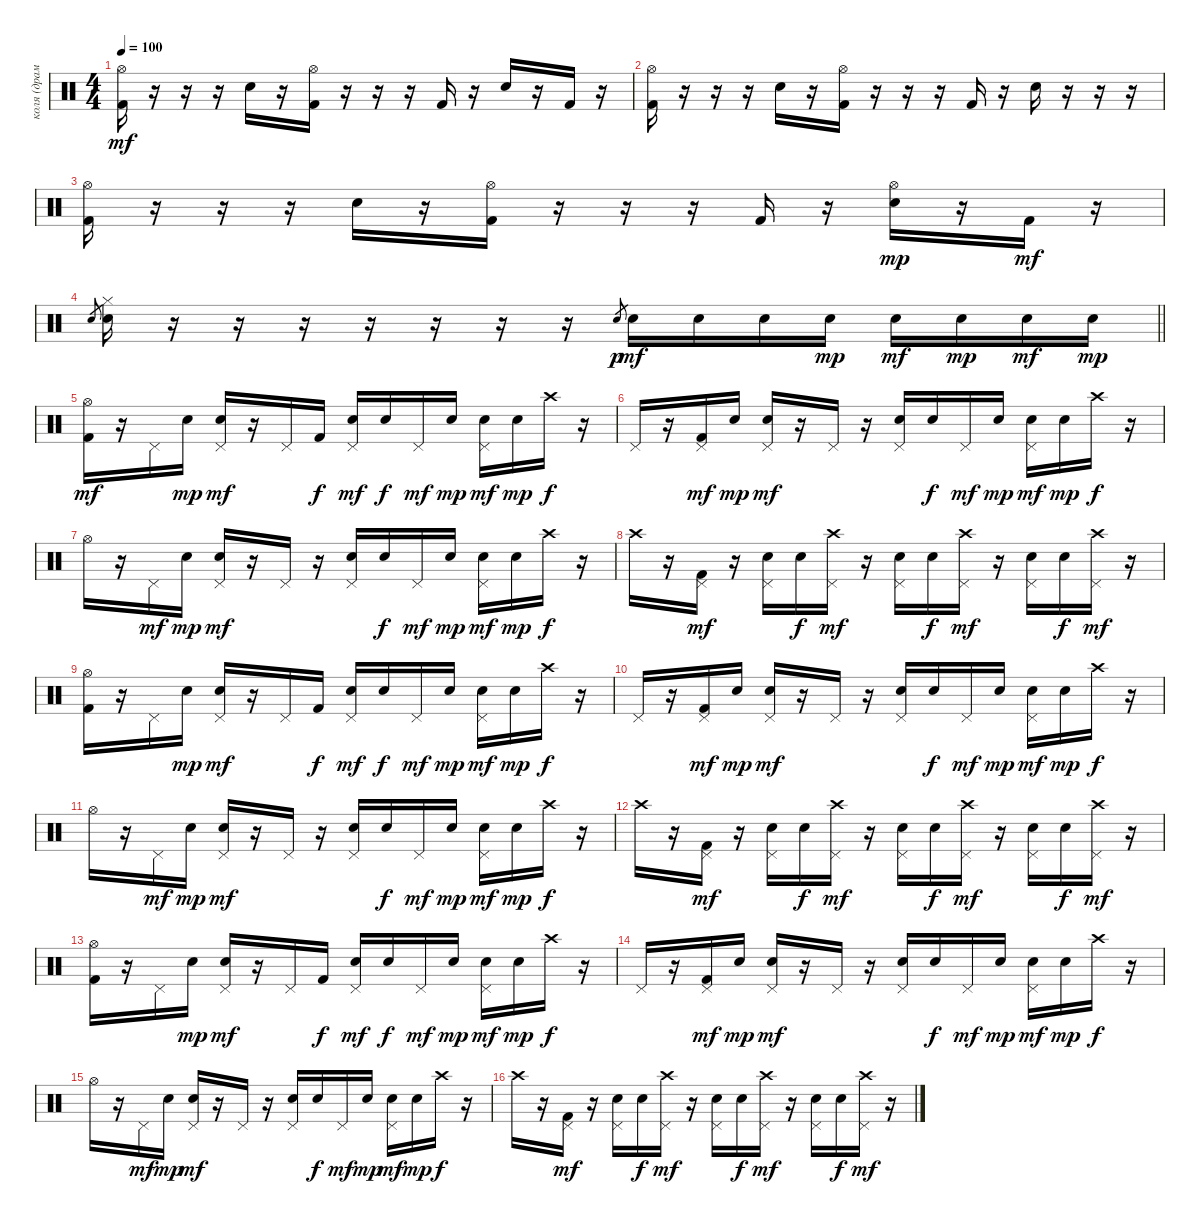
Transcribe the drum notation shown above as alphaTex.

\track ("коля (драммы)" "коля (драм") {instrument percussion}
\staff {score}
\articulation defaults
\ts (4 4)
\tempo 100
\clef neutral
\ks c
("Hi-Hat (open)" "Kick (hit) 2").16{dy mf} r.16 r.16 r.16 "Snare (hit) 2".16 r.16 ("Hi-Hat (open)" "Kick (hit) 2").16 r.16 r.16 r.16 "Kick (hit) 2".16 r.16 "Snare (hit) 2".16 r.16 "Kick (hit) 2".16 r.16 |
("Hi-Hat (open)" "Kick (hit) 2").16 r.16 r.16 r.16 "Snare (hit) 2".16 r.16 ("Hi-Hat (open)" "Kick (hit) 2").16 r.16 r.16 r.16 "Kick (hit) 2".16 r.16 "Snare (hit) 2".16 r.16 r.16 r.16 |
("Hi-Hat (open)" "Kick (hit) 2").16 r.16 r.16 r.16 "Snare (hit) 2".16 r.16 ("Hi-Hat (open)" "Kick (hit) 2").16 r.16 r.16 r.16 "Kick (hit) 2".16 r.16 ("Snare (hit) 2" "Hi-Hat (open)").16{dy mp} r.16 "Kick (hit) 2".16{dy mf} r.16 |
\barLineRight lightlight "Snare (hit) 2".8{gr}
("Snare (hit) 2" "Hi-Hat (closed)").16 r.16 r.16 r.16 r.16 r.16 r.16 r.16 "Snare (hit) 2".8{gr dy p} "Snare (hit) 2".16{dy mf} "Snare (hit) 2".16 "Snare (hit) 2".16 "Snare (hit) 2".16{dy mp} "Snare (hit) 2".16{dy mf} "Snare (hit) 2".16{dy mp} "Snare (hit) 2".16{dy mf} "Snare (hit) 2".16{dy mp} |
("Hi-Hat (open)" "Kick (hit) 2").16{dy mf} r.16 "Pedal Hi-Hat (hit)".16 "Snare (hit) 2".16{dy mp} ("Snare (hit) 2" "Pedal Hi-Hat (hit)").16{dy mf} r.16 "Pedal Hi-Hat (hit)".16 "Kick (hit) 2".16{dy f} ("Snare (hit) 2" "Pedal Hi-Hat (hit)").16{dy mf} "Snare (hit) 2".16{dy f} "Pedal Hi-Hat (hit)".16{dy mf} "Snare (hit) 2".16{dy mp} ("Snare (hit) 2" "Pedal Hi-Hat (hit)").16{dy mf} "Snare (hit) 2".16{dy mp} "Crash high (hit)".16{dy f} r.16 |
"Pedal Hi-Hat (hit)".16 r.16 ("Pedal Hi-Hat (hit)" "Kick (hit) 2").16{dy mf} "Snare (hit) 2".16{dy mp} ("Snare (hit) 2" "Pedal Hi-Hat (hit)").16{dy mf} r.16 "Pedal Hi-Hat (hit)".16 r.16 ("Snare (hit) 2" "Pedal Hi-Hat (hit)").16 "Snare (hit) 2".16{dy f} "Pedal Hi-Hat (hit)".16{dy mf} "Snare (hit) 2".16{dy mp} ("Snare (hit) 2" "Pedal Hi-Hat (hit)").16{dy mf} "Snare (hit) 2".16{dy mp} "Crash high (hit)".16{dy f} r.16 |
"Hi-Hat (open)".16 r.16 "Pedal Hi-Hat (hit)".16{dy mf} "Snare (hit) 2".16{dy mp} ("Snare (hit) 2" "Pedal Hi-Hat (hit)").16{dy mf} r.16 "Pedal Hi-Hat (hit)".16 r.16 ("Snare (hit) 2" "Pedal Hi-Hat (hit)").16 "Snare (hit) 2".16{dy f} "Pedal Hi-Hat (hit)".16{dy mf} "Snare (hit) 2".16{dy mp} ("Snare (hit) 2" "Pedal Hi-Hat (hit)").16{dy mf} "Snare (hit) 2".16{dy mp} "Crash high (hit)".16{dy f} r.16 |
"Crash high (hit)".16 r.16 ("Pedal Hi-Hat (hit)" "Kick (hit) 2").16{dy mf} r.16 ("Snare (hit) 2" "Pedal Hi-Hat (hit)").16 "Snare (hit) 2".16{dy f} ("Crash high (hit)" "Pedal Hi-Hat (hit)").16{dy mf} r.16 ("Snare (hit) 2" "Pedal Hi-Hat (hit)").16 "Snare (hit) 2".16{dy f} ("Crash high (hit)" "Pedal Hi-Hat (hit)").16{dy mf} r.16 ("Snare (hit) 2" "Pedal Hi-Hat (hit)").16 "Snare (hit) 2".16{dy f} ("Crash high (hit)" "Pedal Hi-Hat (hit)").16{dy mf} r.16 |
("Hi-Hat (open)" "Kick (hit) 2").16 r.16 "Pedal Hi-Hat (hit)".16 "Snare (hit) 2".16{dy mp} ("Snare (hit) 2" "Pedal Hi-Hat (hit)").16{dy mf} r.16 "Pedal Hi-Hat (hit)".16 "Kick (hit) 2".16{dy f} ("Snare (hit) 2" "Pedal Hi-Hat (hit)").16{dy mf} "Snare (hit) 2".16{dy f} "Pedal Hi-Hat (hit)".16{dy mf} "Snare (hit) 2".16{dy mp} ("Snare (hit) 2" "Pedal Hi-Hat (hit)").16{dy mf} "Snare (hit) 2".16{dy mp} "Crash high (hit)".16{dy f} r.16 |
"Pedal Hi-Hat (hit)".16 r.16 ("Pedal Hi-Hat (hit)" "Kick (hit) 2").16{dy mf} "Snare (hit) 2".16{dy mp} ("Snare (hit) 2" "Pedal Hi-Hat (hit)").16{dy mf} r.16 "Pedal Hi-Hat (hit)".16 r.16 ("Snare (hit) 2" "Pedal Hi-Hat (hit)").16 "Snare (hit) 2".16{dy f} "Pedal Hi-Hat (hit)".16{dy mf} "Snare (hit) 2".16{dy mp} ("Snare (hit) 2" "Pedal Hi-Hat (hit)").16{dy mf} "Snare (hit) 2".16{dy mp} "Crash high (hit)".16{dy f} r.16 |
"Hi-Hat (open)".16 r.16 "Pedal Hi-Hat (hit)".16{dy mf} "Snare (hit) 2".16{dy mp} ("Snare (hit) 2" "Pedal Hi-Hat (hit)").16{dy mf} r.16 "Pedal Hi-Hat (hit)".16 r.16 ("Snare (hit) 2" "Pedal Hi-Hat (hit)").16 "Snare (hit) 2".16{dy f} "Pedal Hi-Hat (hit)".16{dy mf} "Snare (hit) 2".16{dy mp} ("Snare (hit) 2" "Pedal Hi-Hat (hit)").16{dy mf} "Snare (hit) 2".16{dy mp} "Crash high (hit)".16{dy f} r.16 |
"Crash high (hit)".16 r.16 ("Pedal Hi-Hat (hit)" "Kick (hit) 2").16{dy mf} r.16 ("Snare (hit) 2" "Pedal Hi-Hat (hit)").16 "Snare (hit) 2".16{dy f} ("Crash high (hit)" "Pedal Hi-Hat (hit)").16{dy mf} r.16 ("Snare (hit) 2" "Pedal Hi-Hat (hit)").16 "Snare (hit) 2".16{dy f} ("Crash high (hit)" "Pedal Hi-Hat (hit)").16{dy mf} r.16 ("Snare (hit) 2" "Pedal Hi-Hat (hit)").16 "Snare (hit) 2".16{dy f} ("Crash high (hit)" "Pedal Hi-Hat (hit)").16{dy mf} r.16 |
("Hi-Hat (open)" "Kick (hit) 2").16 r.16 "Pedal Hi-Hat (hit)".16 "Snare (hit) 2".16{dy mp} ("Snare (hit) 2" "Pedal Hi-Hat (hit)").16{dy mf} r.16 "Pedal Hi-Hat (hit)".16 "Kick (hit) 2".16{dy f} ("Snare (hit) 2" "Pedal Hi-Hat (hit)").16{dy mf} "Snare (hit) 2".16{dy f} "Pedal Hi-Hat (hit)".16{dy mf} "Snare (hit) 2".16{dy mp} ("Snare (hit) 2" "Pedal Hi-Hat (hit)").16{dy mf} "Snare (hit) 2".16{dy mp} "Crash high (hit)".16{dy f} r.16 |
"Pedal Hi-Hat (hit)".16 r.16 ("Pedal Hi-Hat (hit)" "Kick (hit) 2").16{dy mf} "Snare (hit) 2".16{dy mp} ("Snare (hit) 2" "Pedal Hi-Hat (hit)").16{dy mf} r.16 "Pedal Hi-Hat (hit)".16 r.16 ("Snare (hit) 2" "Pedal Hi-Hat (hit)").16 "Snare (hit) 2".16{dy f} "Pedal Hi-Hat (hit)".16{dy mf} "Snare (hit) 2".16{dy mp} ("Snare (hit) 2" "Pedal Hi-Hat (hit)").16{dy mf} "Snare (hit) 2".16{dy mp} "Crash high (hit)".16{dy f} r.16 |
"Hi-Hat (open)".16 r.16 "Pedal Hi-Hat (hit)".16{dy mf} "Snare (hit) 2".16{dy mp} ("Snare (hit) 2" "Pedal Hi-Hat (hit)").16{dy mf} r.16 "Pedal Hi-Hat (hit)".16 r.16 ("Snare (hit) 2" "Pedal Hi-Hat (hit)").16 "Snare (hit) 2".16{dy f} "Pedal Hi-Hat (hit)".16{dy mf} "Snare (hit) 2".16{dy mp} ("Snare (hit) 2" "Pedal Hi-Hat (hit)").16{dy mf} "Snare (hit) 2".16{dy mp} "Crash high (hit)".16{dy f} r.16 |
"Crash high (hit)".16 r.16 ("Pedal Hi-Hat (hit)" "Kick (hit) 2").16{dy mf} r.16 ("Snare (hit) 2" "Pedal Hi-Hat (hit)").16 "Snare (hit) 2".16{dy f} ("Crash high (hit)" "Pedal Hi-Hat (hit)").16{dy mf} r.16 ("Snare (hit) 2" "Pedal Hi-Hat (hit)").16 "Snare (hit) 2".16{dy f} ("Crash high (hit)" "Pedal Hi-Hat (hit)").16{dy mf} r.16 ("Snare (hit) 2" "Pedal Hi-Hat (hit)").16 "Snare (hit) 2".16{dy f} ("Crash high (hit)" "Pedal Hi-Hat (hit)").16{dy mf} r.16
